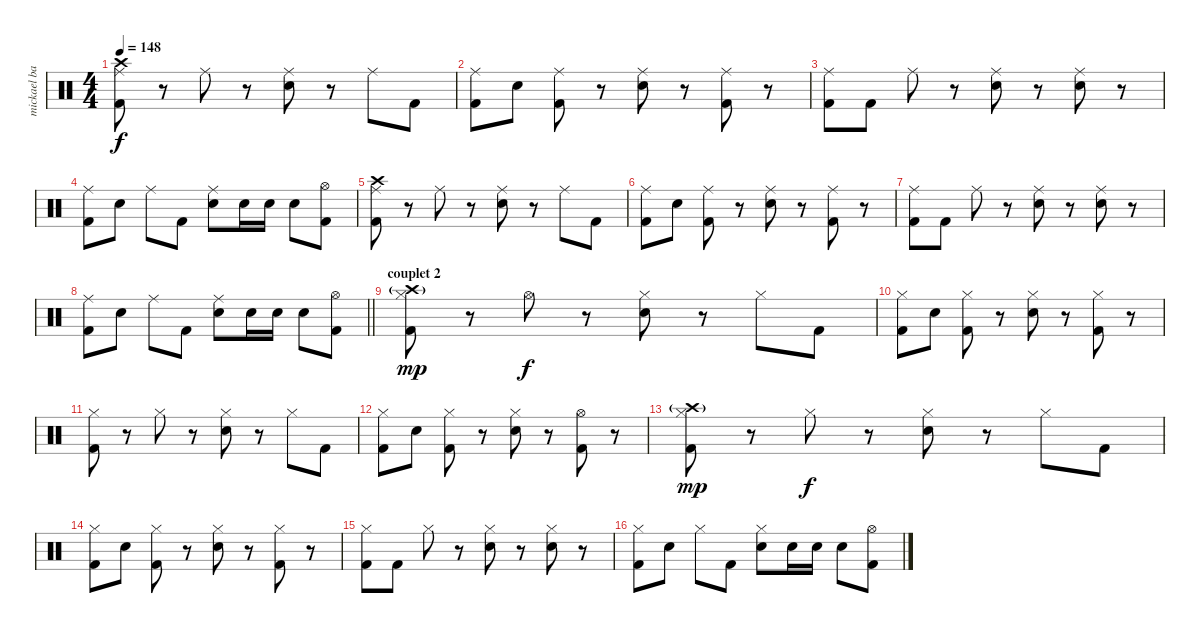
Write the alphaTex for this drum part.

\track ("mickael barker drums" "mickael ba") {instrument percussion}
\staff {score}
\articulation defaults
\ts (4 4)
\tempo 148
\clef neutral
\ks c
("Crash high (hit)" "Ride (middle)" "Kick (hit) 2").8{dy f} r.8 "Ride (middle)".8 r.8 ("Ride (middle)" "Snare (hit) 2").8 r.8 "Ride (middle)".8 "Kick (hit) 2".8 |
("Ride (middle)" "Kick (hit) 2").8 "Snare (hit) 2".8 ("Ride (middle)" "Kick (hit) 2").8 r.8 ("Ride (middle)" "Snare (hit) 2").8 r.8 ("Ride (middle)" "Kick (hit) 2").8 r.8 |
("Ride (middle)" "Kick (hit) 2").8 "Kick (hit) 2".8 "Ride (middle)".8 r.8 ("Ride (middle)" "Snare (hit) 2").8 r.8 ("Ride (middle)" "Snare (hit) 2").8 r.8 |
("Ride (middle)" "Kick (hit) 2").8 "Snare (hit) 2".8 "Ride (middle)".8 "Kick (hit) 2".8 ("Ride (middle)" "Snare (hit) 2").8 "Snare (hit) 2".16 "Snare (hit) 2".16 "Snare (hit) 2".8 ("Hi-Hat (open)" "Kick (hit) 2").8 |
("Crash high (hit)" "Ride (middle)" "Kick (hit) 2").8 r.8 "Ride (middle)".8 r.8 ("Ride (middle)" "Snare (hit) 2").8 r.8 "Ride (middle)".8 "Kick (hit) 2".8 |
("Ride (middle)" "Kick (hit) 2").8 "Snare (hit) 2".8 ("Ride (middle)" "Kick (hit) 2").8 r.8 ("Ride (middle)" "Snare (hit) 2").8 r.8 ("Ride (middle)" "Kick (hit) 2").8 r.8 |
("Ride (middle)" "Kick (hit) 2").8 "Kick (hit) 2".8 "Ride (middle)".8 r.8 ("Ride (middle)" "Snare (hit) 2").8 r.8 ("Ride (middle)" "Snare (hit) 2").8 r.8 |
\barLineRight lightlight
("Ride (middle)" "Kick (hit) 2").8 "Snare (hit) 2".8 "Ride (middle)".8 "Kick (hit) 2".8 ("Ride (middle)" "Snare (hit) 2").8 "Snare (hit) 2".16 "Snare (hit) 2".16 "Snare (hit) 2".8 ("Hi-Hat (open)" "Kick (hit) 2").8 |
\section ("" "couplet 2")
("Crash high (hit)"{g} "Hi-Hat (closed)" "Kick (hit) 2").8{dy mp} r.8 "Hi-Hat (open)".8{dy f} r.8 ("Hi-Hat (closed)" "Snare (hit) 2").8 r.8 "Hi-Hat (closed)".8 "Kick (hit) 2".8 |
("Hi-Hat (closed)" "Kick (hit) 2").8 "Snare (hit) 2".8 ("Hi-Hat (closed)" "Kick (hit) 2").8 r.8 ("Hi-Hat (closed)" "Snare (hit) 2").8 r.8 ("Hi-Hat (closed)" "Kick (hit) 2").8 r.8 |
("Hi-Hat (closed)" "Kick (hit) 2").8 r.8 "Hi-Hat (closed)".8 r.8 ("Hi-Hat (closed)" "Snare (hit) 2").8 r.8 "Hi-Hat (closed)".8 "Kick (hit) 2".8 |
("Hi-Hat (closed)" "Kick (hit) 2").8 "Snare (hit) 2".8 ("Hi-Hat (closed)" "Kick (hit) 2").8 r.8 ("Hi-Hat (closed)" "Snare (hit) 2").8 r.8 ("Hi-Hat (open)" "Kick (hit) 2").8 r.8 |
("Crash high (hit)"{g} "Hi-Hat (closed)" "Kick (hit) 2").8{dy mp} r.8 "Hi-Hat (closed)".8{dy f} r.8 ("Hi-Hat (closed)" "Snare (hit) 2").8 r.8 "Hi-Hat (closed)".8 "Kick (hit) 2".8 |
("Hi-Hat (closed)" "Kick (hit) 2").8 "Snare (hit) 2".8 ("Hi-Hat (closed)" "Kick (hit) 2").8 r.8 ("Hi-Hat (closed)" "Snare (hit) 2").8 r.8 ("Hi-Hat (closed)" "Kick (hit) 2").8 r.8 |
("Hi-Hat (closed)" "Kick (hit) 2").8 "Kick (hit) 2".8 "Hi-Hat (closed)".8 r.8 ("Hi-Hat (closed)" "Snare (hit) 2").8 r.8 ("Hi-Hat (closed)" "Snare (hit) 2").8 r.8 |
("Hi-Hat (closed)" "Kick (hit) 2").8 "Snare (hit) 2".8 "Hi-Hat (closed)".8 "Kick (hit) 2".8 ("Hi-Hat (closed)" "Snare (hit) 2").8 "Snare (hit) 2".16 "Snare (hit) 2".16 "Snare (hit) 2".8 ("Hi-Hat (open)" "Kick (hit) 2").8
